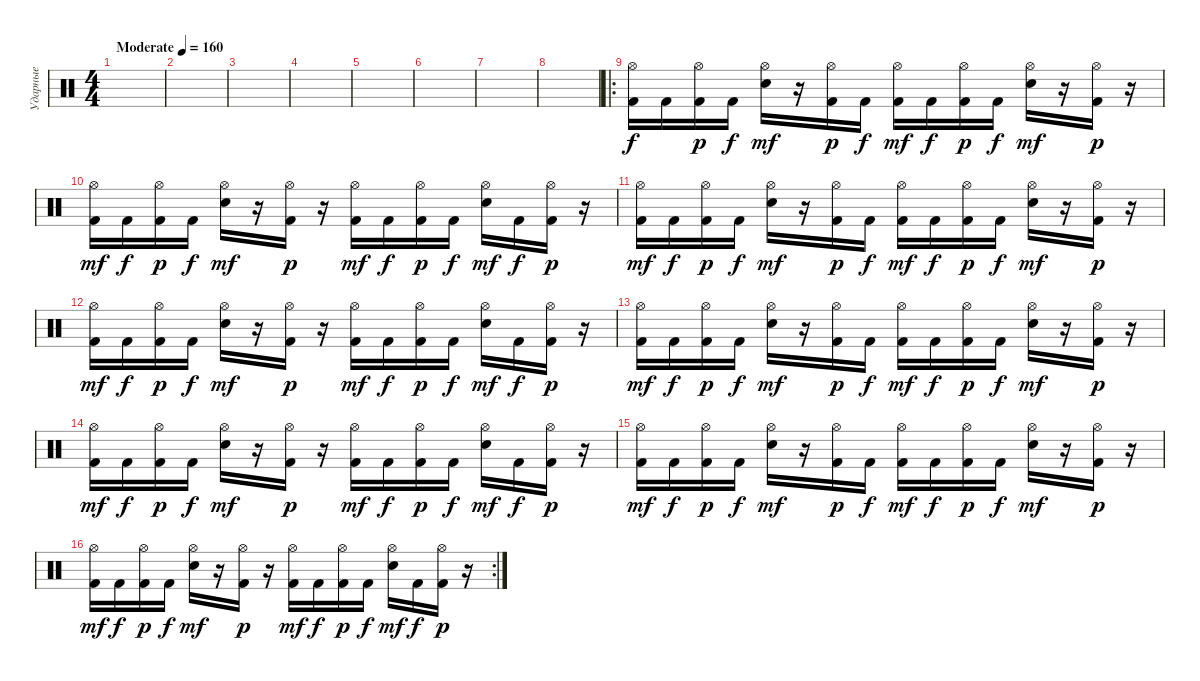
\track ("Ударные" "Ударные") {instrument percussion}
\staff {score}
\articulation defaults
\ts (4 4)
\tempo (160 "Moderate")
\clef neutral
\ks c
|
|
|
|
|
|
|
|
\ro
("Hi-Hat (open)" "Kick (hit) 2").16 "Kick (hit) 2".16{dy f} ("Hi-Hat (open)" "Kick (hit) 2").16{dy p} "Kick (hit) 2".16{dy f} ("Hi-Hat (open)" "Electric Snare (hit)").16{dy mf} r.16 ("Hi-Hat (open)" "Kick (hit) 2").16{dy p} "Kick (hit) 2".16{dy f} ("Hi-Hat (open)" "Kick (hit) 2").16{dy mf} "Kick (hit) 2".16{dy f} ("Hi-Hat (open)" "Kick (hit) 2").16{dy p} "Kick (hit) 2".16{dy f} ("Hi-Hat (open)" "Electric Snare (hit)").16{dy mf} r.16 ("Hi-Hat (open)" "Kick (hit) 2").16{dy p} r.16 |
("Hi-Hat (open)" "Kick (hit) 2").16{dy mf} "Kick (hit) 2".16{dy f} ("Hi-Hat (open)" "Kick (hit) 2").16{dy p} "Kick (hit) 2".16{dy f} ("Hi-Hat (open)" "Electric Snare (hit)").16{dy mf} r.16 ("Hi-Hat (open)" "Kick (hit) 2").16{dy p} r.16 ("Hi-Hat (open)" "Kick (hit) 2").16{dy mf} "Kick (hit) 2".16{dy f} ("Hi-Hat (open)" "Kick (hit) 2").16{dy p} "Kick (hit) 2".16{dy f} ("Hi-Hat (open)" "Electric Snare (hit)").16{dy mf} "Kick (hit) 2".16{dy f} ("Hi-Hat (open)" "Kick (hit) 2").16{dy p} r.16 |
("Hi-Hat (open)" "Kick (hit) 2").16{dy mf} "Kick (hit) 2".16{dy f} ("Hi-Hat (open)" "Kick (hit) 2").16{dy p} "Kick (hit) 2".16{dy f} ("Hi-Hat (open)" "Electric Snare (hit)").16{dy mf} r.16 ("Hi-Hat (open)" "Kick (hit) 2").16{dy p} "Kick (hit) 2".16{dy f} ("Hi-Hat (open)" "Kick (hit) 2").16{dy mf} "Kick (hit) 2".16{dy f} ("Hi-Hat (open)" "Kick (hit) 2").16{dy p} "Kick (hit) 2".16{dy f} ("Hi-Hat (open)" "Electric Snare (hit)").16{dy mf} r.16 ("Hi-Hat (open)" "Kick (hit) 2").16{dy p} r.16 |
("Hi-Hat (open)" "Kick (hit) 2").16{dy mf} "Kick (hit) 2".16{dy f} ("Hi-Hat (open)" "Kick (hit) 2").16{dy p} "Kick (hit) 2".16{dy f} ("Hi-Hat (open)" "Electric Snare (hit)").16{dy mf} r.16 ("Hi-Hat (open)" "Kick (hit) 2").16{dy p} r.16 ("Hi-Hat (open)" "Kick (hit) 2").16{dy mf} "Kick (hit) 2".16{dy f} ("Hi-Hat (open)" "Kick (hit) 2").16{dy p} "Kick (hit) 2".16{dy f} ("Hi-Hat (open)" "Electric Snare (hit)").16{dy mf} "Kick (hit) 2".16{dy f} ("Hi-Hat (open)" "Kick (hit) 2").16{dy p} r.16 |
("Hi-Hat (open)" "Kick (hit) 2").16{dy mf} "Kick (hit) 2".16{dy f} ("Hi-Hat (open)" "Kick (hit) 2").16{dy p} "Kick (hit) 2".16{dy f} ("Hi-Hat (open)" "Electric Snare (hit)").16{dy mf} r.16 ("Hi-Hat (open)" "Kick (hit) 2").16{dy p} "Kick (hit) 2".16{dy f} ("Hi-Hat (open)" "Kick (hit) 2").16{dy mf} "Kick (hit) 2".16{dy f} ("Hi-Hat (open)" "Kick (hit) 2").16{dy p} "Kick (hit) 2".16{dy f} ("Hi-Hat (open)" "Electric Snare (hit)").16{dy mf} r.16 ("Hi-Hat (open)" "Kick (hit) 2").16{dy p} r.16 |
("Hi-Hat (open)" "Kick (hit) 2").16{dy mf} "Kick (hit) 2".16{dy f} ("Hi-Hat (open)" "Kick (hit) 2").16{dy p} "Kick (hit) 2".16{dy f} ("Hi-Hat (open)" "Electric Snare (hit)").16{dy mf} r.16 ("Hi-Hat (open)" "Kick (hit) 2").16{dy p} r.16 ("Hi-Hat (open)" "Kick (hit) 2").16{dy mf} "Kick (hit) 2".16{dy f} ("Hi-Hat (open)" "Kick (hit) 2").16{dy p} "Kick (hit) 2".16{dy f} ("Hi-Hat (open)" "Electric Snare (hit)").16{dy mf} "Kick (hit) 2".16{dy f} ("Hi-Hat (open)" "Kick (hit) 2").16{dy p} r.16 |
("Hi-Hat (open)" "Kick (hit) 2").16{dy mf} "Kick (hit) 2".16{dy f} ("Hi-Hat (open)" "Kick (hit) 2").16{dy p} "Kick (hit) 2".16{dy f} ("Hi-Hat (open)" "Electric Snare (hit)").16{dy mf} r.16 ("Hi-Hat (open)" "Kick (hit) 2").16{dy p} "Kick (hit) 2".16{dy f} ("Hi-Hat (open)" "Kick (hit) 2").16{dy mf} "Kick (hit) 2".16{dy f} ("Hi-Hat (open)" "Kick (hit) 2").16{dy p} "Kick (hit) 2".16{dy f} ("Hi-Hat (open)" "Electric Snare (hit)").16{dy mf} r.16 ("Hi-Hat (open)" "Kick (hit) 2").16{dy p} r.16 |
\rc 2
("Hi-Hat (open)" "Kick (hit) 2").16{dy mf} "Kick (hit) 2".16{dy f} ("Hi-Hat (open)" "Kick (hit) 2").16{dy p} "Kick (hit) 2".16{dy f} ("Hi-Hat (open)" "Electric Snare (hit)").16{dy mf} r.16 ("Hi-Hat (open)" "Kick (hit) 2").16{dy p} r.16 ("Hi-Hat (open)" "Kick (hit) 2").16{dy mf} "Kick (hit) 2".16{dy f} ("Hi-Hat (open)" "Kick (hit) 2").16{dy p} "Kick (hit) 2".16{dy f} ("Hi-Hat (open)" "Electric Snare (hit)").16{dy mf} "Kick (hit) 2".16{dy f} ("Hi-Hat (open)" "Kick (hit) 2").16{dy p} r.16
